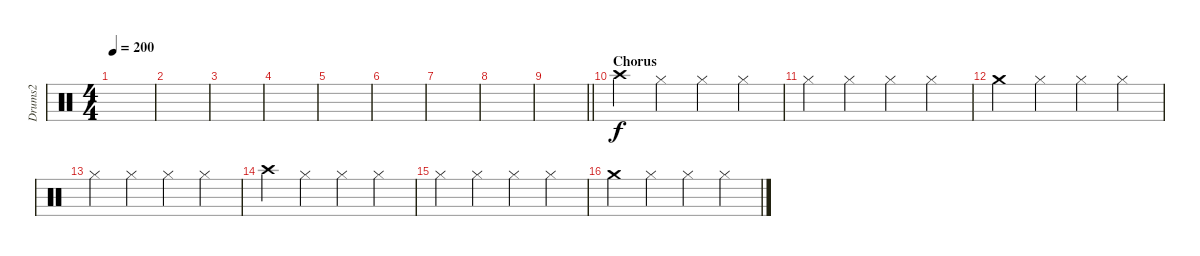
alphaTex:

\track ("Drums2" "Drums2") {instrument percussion}
\staff {score}
\articulation defaults
\ts (4 4)
\tempo 200
\clef neutral
\ks c
|
|
|
|
|
|
|
|
\barLineRight lightlight
|
\section ("" "Chorus")
"Crash high (hit)".4 "Hi-Hat (closed)".4 "Hi-Hat (closed)".4 "Hi-Hat (closed)".4 |
"Hi-Hat (closed)".4 "Hi-Hat (closed)".4 "Hi-Hat (closed)".4 "Hi-Hat (closed)".4 |
"Crash medium (hit)".4 "Hi-Hat (closed)".4 "Hi-Hat (closed)".4 "Hi-Hat (closed)".4 |
"Hi-Hat (closed)".4 "Hi-Hat (closed)".4 "Hi-Hat (closed)".4 "Hi-Hat (closed)".4 |
"Crash high (hit)".4 "Hi-Hat (closed)".4 "Hi-Hat (closed)".4 "Hi-Hat (closed)".4 |
"Hi-Hat (closed)".4 "Hi-Hat (closed)".4 "Hi-Hat (closed)".4 "Hi-Hat (closed)".4 |
"Crash medium (hit)".4 "Hi-Hat (closed)".4 "Hi-Hat (closed)".4 "Hi-Hat (closed)".4
